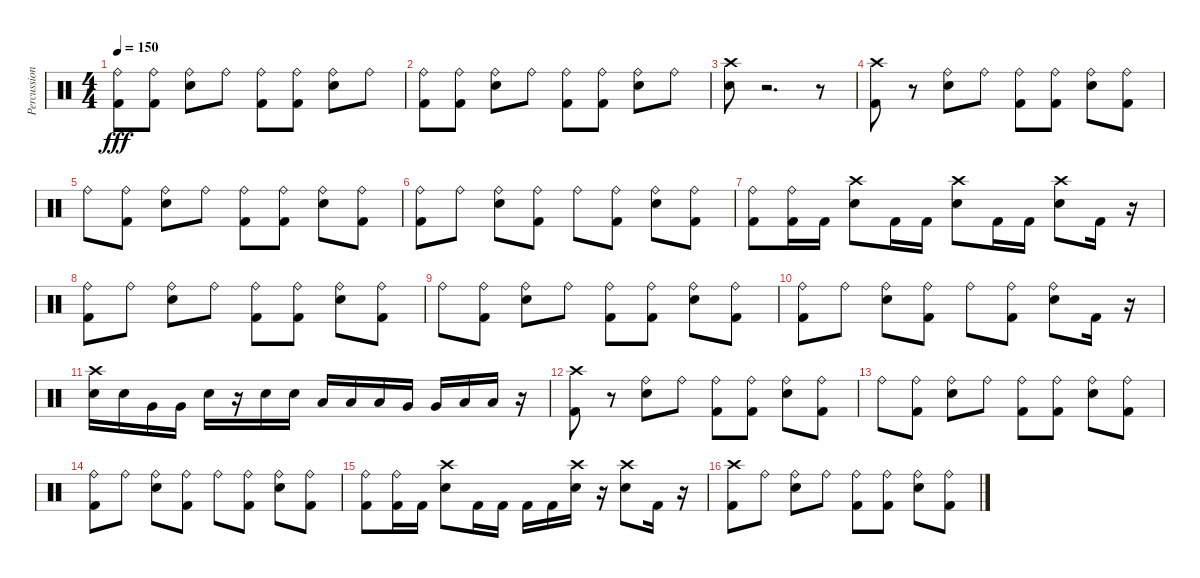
\track ("Percussion" "Percussion") {instrument percussion}
\staff {score}
\articulation defaults
\ts (4 4)
\tempo 150
\clef neutral
\ks c
("Kick (hit) 2" "Ride (bell)").8{dy fff} ("Kick (hit) 2" "Ride (bell)").8 ("Snare (hit) 2" "Ride (bell)").8 "Ride (bell)".8 ("Kick (hit) 2" "Ride (bell)").8 ("Kick (hit) 2" "Ride (bell)").8 ("Snare (hit) 2" "Ride (bell)").8 "Ride (bell)".8 |
("Kick (hit) 2" "Ride (bell)").8 ("Kick (hit) 2" "Ride (bell)").8 ("Snare (hit) 2" "Ride (bell)").8 "Ride (bell)".8 ("Kick (hit) 2" "Ride (bell)").8 ("Kick (hit) 2" "Ride (bell)").8 ("Snare (hit) 2" "Ride (bell)").8 "Ride (bell)".8 |
("Snare (hit) 2" "Crash high (hit)").8 r.2{d} r.8 |
("Kick (hit) 2" "Crash high (hit)").8 r.8 ("Ride (bell)" "Snare (hit) 2").8 "Ride (bell)".8 ("Ride (bell)" "Kick (hit) 2").8 ("Ride (bell)" "Kick (hit) 2").8 ("Ride (bell)" "Snare (hit) 2").8 ("Ride (bell)" "Kick (hit) 2").8 |
"Ride (bell)".8 ("Ride (bell)" "Kick (hit) 2").8 ("Ride (bell)" "Snare (hit) 2").8 "Ride (bell)".8 ("Ride (bell)" "Kick (hit) 2").8 ("Ride (bell)" "Kick (hit) 2").8 ("Ride (bell)" "Snare (hit) 2").8 ("Ride (bell)" "Kick (hit) 2").8 |
("Ride (bell)" "Kick (hit) 2").8 "Ride (bell)".8 ("Ride (bell)" "Snare (hit) 2").8 ("Ride (bell)" "Kick (hit) 2").8 "Ride (bell)".8 ("Ride (bell)" "Kick (hit) 2").8 ("Ride (bell)" "Snare (hit) 2").8 ("Ride (bell)" "Kick (hit) 2").8 |
("Ride (bell)" "Kick (hit) 2").8 ("Ride (bell)" "Kick (hit) 2").16 "Kick (hit) 2".16 ("Snare (hit) 2" "Crash high (hit)").8 "Kick (hit) 2".16 "Kick (hit) 2".16 ("Snare (hit) 2" "Crash high (hit)").8 "Kick (hit) 2".16 "Kick (hit) 2".16 ("Snare (hit) 2" "Crash high (hit)").8 "Kick (hit) 2".16 r.16 |
("Ride (bell)" "Kick (hit) 2").8 "Ride (bell)".8 ("Ride (bell)" "Snare (hit) 2").8 "Ride (bell)".8 ("Ride (bell)" "Kick (hit) 2").8 ("Ride (bell)" "Kick (hit) 2").8 ("Ride (bell)" "Snare (hit) 2").8 ("Ride (bell)" "Kick (hit) 2").8 |
"Ride (bell)".8 ("Ride (bell)" "Kick (hit) 2").8 ("Ride (bell)" "Snare (hit) 2").8 "Ride (bell)".8 ("Ride (bell)" "Kick (hit) 2").8 ("Ride (bell)" "Kick (hit) 2").8 ("Ride (bell)" "Snare (hit) 2").8 ("Ride (bell)" "Kick (hit) 2").8 |
("Kick (hit) 2" "Ride (bell)").8 "Ride (bell)".8 ("Snare (hit) 2" "Ride (bell)").8 ("Kick (hit) 2" "Ride (bell)").8 "Ride (bell)".8 ("Kick (hit) 2" "Ride (bell)").8 ("Snare (hit) 2" "Ride (bell)").8 "Kick (hit) 2".16 r.16 |
("Snare (hit) 2" "Crash high (hit)").16 "Snare (hit) 2".16 "Very Low Tom (hit)".16 "Very Low Tom (hit)".16 "Snare (hit) 2".16 r.16 "Snare (hit) 2".16 "Snare (hit) 2".16 "Low Tom (hit)".16 "Low Tom (hit)".16 "Low Tom (hit)".16 "Very Low Tom (hit)".16 "Very Low Tom (hit)".16 "Low Floor Tom (hit)".16 "Low Floor Tom (hit)".16 r.16 |
("Kick (hit) 2" "Crash high (hit)").8 r.8 ("Ride (bell)" "Snare (hit) 2").8 "Ride (bell)".8 ("Ride (bell)" "Kick (hit) 2").8 ("Ride (bell)" "Kick (hit) 2").8 ("Ride (bell)" "Snare (hit) 2").8 ("Ride (bell)" "Kick (hit) 2").8 |
"Ride (bell)".8 ("Ride (bell)" "Kick (hit) 2").8 ("Ride (bell)" "Snare (hit) 2").8 "Ride (bell)".8 ("Ride (bell)" "Kick (hit) 2").8 ("Ride (bell)" "Kick (hit) 2").8 ("Ride (bell)" "Snare (hit) 2").8 ("Ride (bell)" "Kick (hit) 2").8 |
("Ride (bell)" "Kick (hit) 2").8 "Ride (bell)".8 ("Ride (bell)" "Snare (hit) 2").8 ("Ride (bell)" "Kick (hit) 2").8 "Ride (bell)".8 ("Ride (bell)" "Kick (hit) 2").8 ("Ride (bell)" "Snare (hit) 2").8 ("Ride (bell)" "Kick (hit) 2").8 |
("Ride (bell)" "Kick (hit) 2").8 ("Ride (bell)" "Kick (hit) 2").16 "Kick (hit) 2".16 ("Crash high (hit)" "Snare (hit) 2").8 "Kick (hit) 2".16 "Kick (hit) 2".16 "Kick (hit) 2".16 "Kick (hit) 2".16 ("Crash high (hit)" "Snare (hit) 2").16 r.16 ("Crash high (hit)" "Snare (hit) 2").8 "Kick (hit) 2".16 r.16 |
("Kick (hit) 2" "Crash high (hit)").8 "Ride (bell)".8 ("Ride (bell)" "Snare (hit) 2").8 "Ride (bell)".8 ("Ride (bell)" "Kick (hit) 2").8 ("Ride (bell)" "Kick (hit) 2").8 ("Ride (bell)" "Snare (hit) 2").8 ("Ride (bell)" "Kick (hit) 2").8
